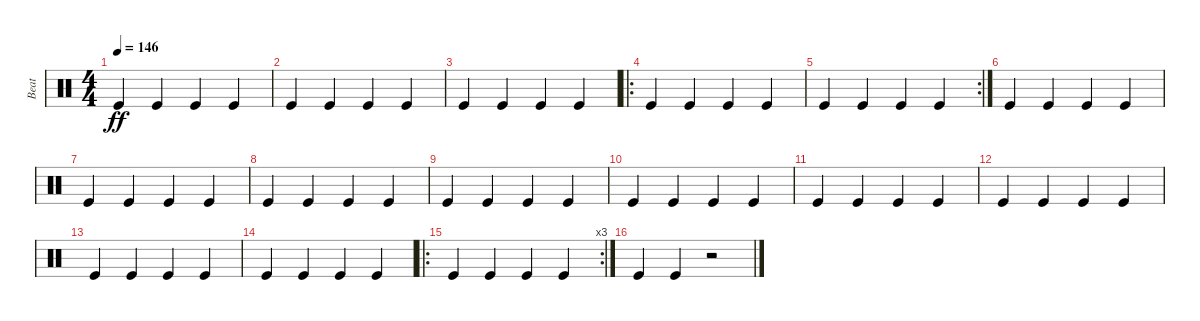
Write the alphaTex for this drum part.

\track ("Beat" "Beat") {instrument percussion}
\staff {score}
\articulation defaults
\ts (4 4)
\tempo 146
\clef neutral
\ks c "Kick (hit)".4{dy ff} "Kick (hit)".4 "Kick (hit)".4 "Kick (hit)".4
|
"Kick (hit)".4 "Kick (hit)".4 "Kick (hit)".4 "Kick (hit)".4 |
"Kick (hit)".4 "Kick (hit)".4 "Kick (hit)".4 "Kick (hit)".4 |
\ro "Kick (hit)".4 "Kick (hit)".4 "Kick (hit)".4 "Kick (hit)".4
|
\rc 2 "Kick (hit)".4 "Kick (hit)".4 "Kick (hit)".4 "Kick (hit)".4
|
"Kick (hit)".4 "Kick (hit)".4 "Kick (hit)".4 "Kick (hit)".4 |
"Kick (hit)".4 "Kick (hit)".4 "Kick (hit)".4 "Kick (hit)".4 |
"Kick (hit)".4 "Kick (hit)".4 "Kick (hit)".4 "Kick (hit)".4 |
"Kick (hit)".4 "Kick (hit)".4 "Kick (hit)".4 "Kick (hit)".4 |
"Kick (hit)".4 "Kick (hit)".4 "Kick (hit)".4 "Kick (hit)".4 |
"Kick (hit)".4 "Kick (hit)".4 "Kick (hit)".4 "Kick (hit)".4 |
"Kick (hit)".4 "Kick (hit)".4 "Kick (hit)".4 "Kick (hit)".4 |
"Kick (hit)".4 "Kick (hit)".4 "Kick (hit)".4 "Kick (hit)".4 |
"Kick (hit)".4 "Kick (hit)".4 "Kick (hit)".4 "Kick (hit)".4 |
\ro
\rc 3 "Kick (hit)".4 "Kick (hit)".4 "Kick (hit)".4 "Kick (hit)".4
|
"Kick (hit)".4 "Kick (hit)".4 r.2
